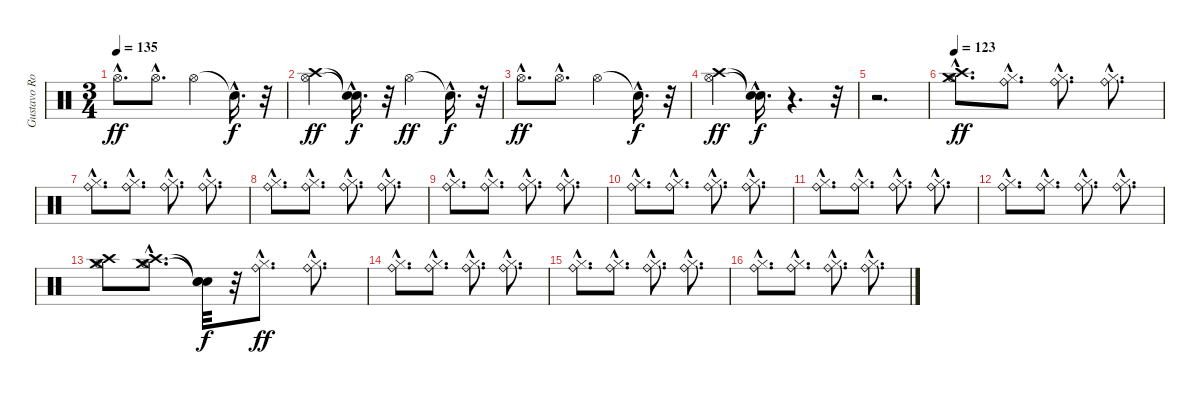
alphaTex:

\track ("Gustavo Rowek 1" "Gustavo Ro") {instrument percussion}
\staff {score}
\articulation defaults
\ts (3 4)
\tempo 135
\clef neutral
\ks c "Hi-Hat (open)"{hac}.8{d dy ff} "Hi-Hat (open)"{hac}.8{d} "Hi-Hat (open)".4 "Snare (hit)"{hac t}.16{d dy f}
r.32 |
("Hi-Hat (open)" "Crash high (hit)").4{dy ff} ("Snare (hit)"{hac t} "Snare (hit)"{hac t}).16{d dy f} r.32 "Hi-Hat (open)".4{dy ff} "Snare (hit)"{hac t}.16{d dy f} r.32 |
"Hi-Hat (open)"{hac}.8{d dy ff} "Hi-Hat (open)"{hac}.8{d} "Hi-Hat (open)".4 "Snare (hit)"{hac t}.16{d dy f} r.32 |
("Hi-Hat (open)" "Crash high (hit)").4{dy ff} ("Snare (hit)"{hac t} "Snare (hit)"{hac t}).16{d dy f} r.4{d} r.32 |
r.2{d} |
\tempo 123
("Hi-Hat (open)"{hac} "Crash high (hit)"{hac} "Crash medium (hit)"{hac}).8{d dy ff} ("Hi-Hat (closed)"{hac} "Ride (bell)"{hac}).8{d} ("Hi-Hat (closed)"{hac} "Ride (bell)"{hac}).8{d} ("Hi-Hat (closed)"{hac} "Ride (bell)"{hac}).8{d} |
("Hi-Hat (closed)"{hac} "Ride (bell)"{hac}).8{d} ("Hi-Hat (closed)"{hac} "Ride (bell)"{hac}).8{d} ("Hi-Hat (closed)"{hac} "Ride (bell)"{hac}).8{d} ("Hi-Hat (closed)"{hac} "Ride (bell)"{hac}).8{d} |
("Hi-Hat (closed)"{hac} "Ride (bell)"{hac}).8{d} ("Hi-Hat (closed)"{hac} "Ride (bell)"{hac}).8{d} ("Hi-Hat (closed)"{hac} "Ride (bell)"{hac}).8{d} ("Hi-Hat (closed)"{hac} "Ride (bell)"{hac}).8{d} |
("Hi-Hat (closed)"{hac} "Ride (bell)"{hac}).8{d} ("Hi-Hat (closed)"{hac} "Ride (bell)"{hac}).8{d} ("Hi-Hat (closed)"{hac} "Ride (bell)"{hac}).8{d} ("Hi-Hat (closed)"{hac} "Ride (bell)"{hac}).8{d} |
("Hi-Hat (closed)"{hac} "Ride (bell)"{hac}).8{d} ("Hi-Hat (closed)"{hac} "Ride (bell)"{hac}).8{d} ("Hi-Hat (closed)"{hac} "Ride (bell)"{hac}).8{d} ("Hi-Hat (closed)"{hac} "Ride (bell)"{hac}).8{d} |
("Hi-Hat (closed)"{hac} "Ride (bell)"{hac}).8{d} ("Hi-Hat (closed)"{hac} "Ride (bell)"{hac}).8{d} ("Hi-Hat (closed)"{hac} "Ride (bell)"{hac}).8{d} ("Hi-Hat (closed)"{hac} "Ride (bell)"{hac}).8{d} |
("Hi-Hat (closed)"{hac} "Ride (bell)"{hac}).8{d} ("Hi-Hat (closed)"{hac} "Ride (bell)"{hac}).8{d} ("Hi-Hat (closed)"{hac} "Ride (bell)"{hac}).8{d} ("Hi-Hat (closed)"{hac} "Ride (bell)"{hac}).8{d} |
("Hi-Hat (open)" "Crash high (hit)" "Crash medium (hit)").8 ("Hi-Hat (open)"{hac} "Crash high (hit)"{hac} "Crash medium (hit)"{hac}).8{d} ("Snare (hit)"{t} "Snare (hit)"{t} "Snare (hit)"{t}).32{dy f} r.32 ("Hi-Hat (closed)"{hac} "Ride (bell)"{hac}).8{d dy ff} ("Hi-Hat (closed)"{hac} "Ride (bell)"{hac}).8{d} |
("Hi-Hat (closed)"{hac} "Ride (bell)"{hac}).8{d} ("Hi-Hat (closed)"{hac} "Ride (bell)"{hac}).8{d} ("Hi-Hat (closed)"{hac} "Ride (bell)"{hac}).8{d} ("Hi-Hat (closed)"{hac} "Ride (bell)"{hac}).8{d} |
("Hi-Hat (closed)"{hac} "Ride (bell)"{hac}).8{d} ("Hi-Hat (closed)"{hac} "Ride (bell)"{hac}).8{d} ("Hi-Hat (closed)"{hac} "Ride (bell)"{hac}).8{d} ("Hi-Hat (closed)"{hac} "Ride (bell)"{hac}).8{d} |
("Hi-Hat (closed)"{hac} "Ride (bell)"{hac}).8{d} ("Hi-Hat (closed)"{hac} "Ride (bell)"{hac}).8{d} ("Hi-Hat (closed)"{hac} "Ride (bell)"{hac}).8{d} ("Hi-Hat (closed)"{hac} "Ride (bell)"{hac}).8{d}
